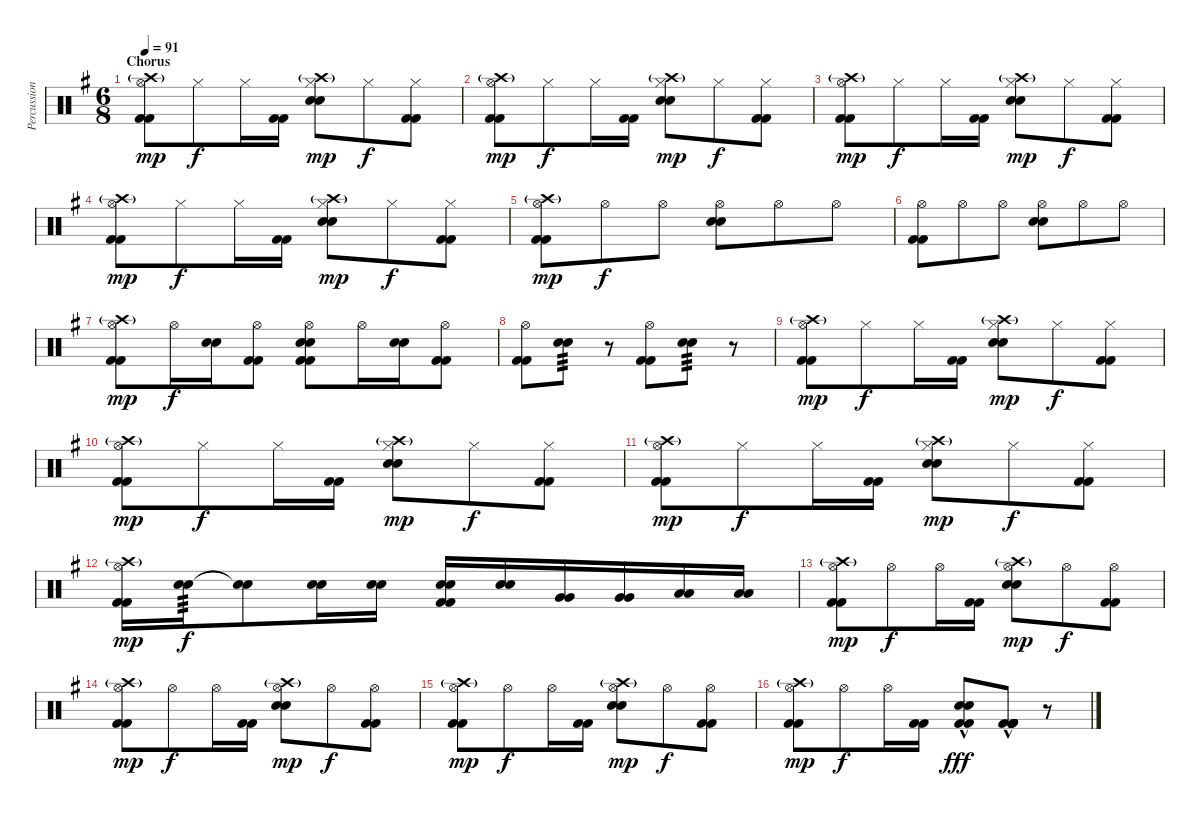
\track ("Percussion" "Percussion") {instrument percussion}
\staff {score}
\articulation defaults
\ts (6 8)
\section ("" "Chorus")
\tempo 91
\clef neutral
\ks eminor
("Hi-Hat (open)" "Crash high (hit)"{g} "Kick (hit) 2" "Kick (hit) 2").8{dy mp} "Hi-Hat (closed)".8{dy f} "Hi-Hat (closed)".16 ("Kick (hit) 2" "Kick (hit) 2").16 ("Hi-Hat (closed)" "Crash high (hit)"{g} "Snare (hit) 2" "Snare (hit) 2").8{dy mp} "Hi-Hat (closed)".8{dy f} ("Hi-Hat (closed)" "Kick (hit) 2" "Kick (hit) 2").8 |
("Hi-Hat (open)" "Crash high (hit)"{g} "Kick (hit) 2" "Kick (hit) 2").8{dy mp} "Hi-Hat (closed)".8{dy f} "Hi-Hat (closed)".16 ("Kick (hit) 2" "Kick (hit) 2").16 ("Hi-Hat (closed)" "Crash high (hit)"{g} "Snare (hit) 2" "Snare (hit) 2").8{dy mp} "Hi-Hat (closed)".8{dy f} ("Hi-Hat (closed)" "Kick (hit) 2" "Kick (hit) 2").8 |
("Hi-Hat (open)" "Crash high (hit)"{g} "Kick (hit) 2" "Kick (hit) 2").8{dy mp} "Hi-Hat (closed)".8{dy f} "Hi-Hat (closed)".16 ("Kick (hit) 2" "Kick (hit) 2").16 ("Hi-Hat (closed)" "Crash high (hit)"{g} "Snare (hit) 2" "Snare (hit) 2").8{dy mp} "Hi-Hat (closed)".8{dy f} ("Hi-Hat (closed)" "Kick (hit) 2" "Kick (hit) 2").8 |
("Hi-Hat (open)" "Crash high (hit)"{g} "Kick (hit) 2" "Kick (hit) 2").8{dy mp} "Hi-Hat (closed)".8{dy f} "Hi-Hat (closed)".16 ("Kick (hit) 2" "Kick (hit) 2").16 ("Hi-Hat (closed)" "Crash high (hit)"{g} "Snare (hit) 2" "Snare (hit) 2").8{dy mp} "Hi-Hat (closed)".8{dy f} ("Hi-Hat (closed)" "Kick (hit) 2" "Kick (hit) 2").8 |
("Hi-Hat (open)" "Crash high (hit)"{g} "Kick (hit) 2" "Kick (hit) 2").8{dy mp} "Hi-Hat (open)".8{dy f} "Hi-Hat (open)".8 ("Hi-Hat (open)" "Snare (hit) 2" "Snare (hit) 2").8 "Hi-Hat (open)".8 "Hi-Hat (open)".8 |
("Hi-Hat (open)" "Kick (hit) 2" "Kick (hit) 2").8 "Hi-Hat (open)".8 "Hi-Hat (open)".8 ("Hi-Hat (open)" "Snare (hit) 2" "Snare (hit) 2").8 "Hi-Hat (open)".8 "Hi-Hat (open)".8 |
("Hi-Hat (open)" "Crash high (hit)"{g} "Kick (hit) 2" "Kick (hit) 2").8{dy mp} "Hi-Hat (open)".16{dy f} ("Snare (hit) 2" "Snare (hit) 2").16 ("Hi-Hat (open)" "Kick (hit) 2" "Kick (hit) 2").8 ("Hi-Hat (open)" "Snare (hit) 2" "Snare (hit) 2" "Kick (hit) 2" "Kick (hit) 2").8 "Hi-Hat (open)".16 ("Snare (hit) 2" "Snare (hit) 2").16 ("Hi-Hat (open)" "Kick (hit) 2" "Kick (hit) 2").8 |
("Hi-Hat (open)" "Kick (hit) 2" "Kick (hit) 2").8 ("Snare (hit) 2" "Snare (hit) 2").8{tp 3} r.8 ("Hi-Hat (open)" "Kick (hit) 2" "Kick (hit) 2").8 ("Snare (hit) 2" "Snare (hit) 2").8{tp 3} r.8 |
("Hi-Hat (open)" "Crash high (hit)"{g} "Kick (hit) 2" "Kick (hit) 2").8{dy mp} "Hi-Hat (closed)".8{dy f} "Hi-Hat (closed)".16 ("Kick (hit) 2" "Kick (hit) 2").16 ("Hi-Hat (closed)" "Crash high (hit)"{g} "Snare (hit) 2" "Snare (hit) 2").8{dy mp} "Hi-Hat (closed)".8{dy f} ("Hi-Hat (closed)" "Kick (hit) 2" "Kick (hit) 2").8 |
("Hi-Hat (open)" "Crash high (hit)"{g} "Kick (hit) 2" "Kick (hit) 2").8{dy mp} "Hi-Hat (closed)".8{dy f} "Hi-Hat (closed)".16 ("Kick (hit) 2" "Kick (hit) 2").16 ("Hi-Hat (closed)" "Crash high (hit)"{g} "Snare (hit) 2" "Snare (hit) 2").8{dy mp} "Hi-Hat (closed)".8{dy f} ("Hi-Hat (closed)" "Kick (hit) 2" "Kick (hit) 2").8 |
("Hi-Hat (open)" "Crash high (hit)"{g} "Kick (hit) 2" "Kick (hit) 2").8{dy mp} "Hi-Hat (closed)".8{dy f} "Hi-Hat (closed)".16 ("Kick (hit) 2" "Kick (hit) 2").16 ("Hi-Hat (closed)" "Crash high (hit)"{g} "Snare (hit) 2" "Snare (hit) 2").8{dy mp} "Hi-Hat (closed)".8{dy f} ("Hi-Hat (closed)" "Kick (hit) 2" "Kick (hit) 2").8 |
("Hi-Hat (open)" "Crash high (hit)"{g} "Kick (hit) 2" "Kick (hit) 2").16{dy mp} ("Snare (hit) 2" "Snare (hit) 2").16{tp 3 dy f} ("Snare (hit) 2"{t} "Snare (hit) 2"{t}).8 ("Snare (hit) 2" "Snare (hit) 2").16 ("Snare (hit) 2" "Snare (hit) 2").16 ("Snare (hit) 2" "Snare (hit) 2" "Kick (hit) 2" "Kick (hit) 2").16 ("Snare (hit) 2" "Snare (hit) 2").16 ("Very Low Tom (hit)" "Very Low Tom (hit)").16 ("Very Low Tom (hit)" "Very Low Tom (hit)").16 ("Low Floor Tom (hit)" "Low Floor Tom (hit)").16 ("Low Floor Tom (hit)" "Low Floor Tom (hit)").16 |
("Hi-Hat (open)" "Crash high (hit)"{g} "Kick (hit) 2" "Kick (hit) 2").8{dy mp} "Hi-Hat (open)".8{dy f} "Hi-Hat (open)".16 ("Kick (hit) 2" "Kick (hit) 2").16 ("Hi-Hat (open)" "Crash high (hit)"{g} "Snare (hit) 2" "Snare (hit) 2").8{dy mp} "Hi-Hat (open)".8{dy f} ("Hi-Hat (open)" "Kick (hit) 2" "Kick (hit) 2").8 |
("Hi-Hat (open)" "Crash high (hit)"{g} "Kick (hit) 2" "Kick (hit) 2").8{dy mp} "Hi-Hat (open)".8{dy f} "Hi-Hat (open)".16 ("Kick (hit) 2" "Kick (hit) 2").16 ("Hi-Hat (open)" "Crash high (hit)"{g} "Snare (hit) 2" "Snare (hit) 2").8{dy mp} "Hi-Hat (open)".8{dy f} ("Hi-Hat (open)" "Kick (hit) 2" "Kick (hit) 2").8 |
("Hi-Hat (open)" "Crash high (hit)"{g} "Kick (hit) 2" "Kick (hit) 2").8{dy mp} "Hi-Hat (open)".8{dy f} "Hi-Hat (open)".16 ("Kick (hit) 2" "Kick (hit) 2").16 ("Hi-Hat (open)" "Crash high (hit)"{g} "Snare (hit) 2" "Snare (hit) 2").8{dy mp} "Hi-Hat (open)".8{dy f} ("Hi-Hat (open)" "Kick (hit) 2" "Kick (hit) 2").8 |
("Hi-Hat (open)" "Crash high (hit)"{g} "Kick (hit) 2" "Kick (hit) 2").8{dy mp} "Hi-Hat (open)".8{dy f} "Hi-Hat (open)".16 ("Kick (hit) 2" "Kick (hit) 2").16 ("Snare (hit) 2"{hac} "Snare (hit) 2"{hac} "Kick (hit) 2"{hac} "Kick (hit) 2"{hac}).8{dy fff} ("Kick (hit) 2"{hac} "Kick (hit) 2"{hac} "Kick (hit) 2"{hac} "Kick (hit) 2"{hac} "Kick (hit) 2"{hac} "Kick (hit) 2"{hac}).8 r.8
